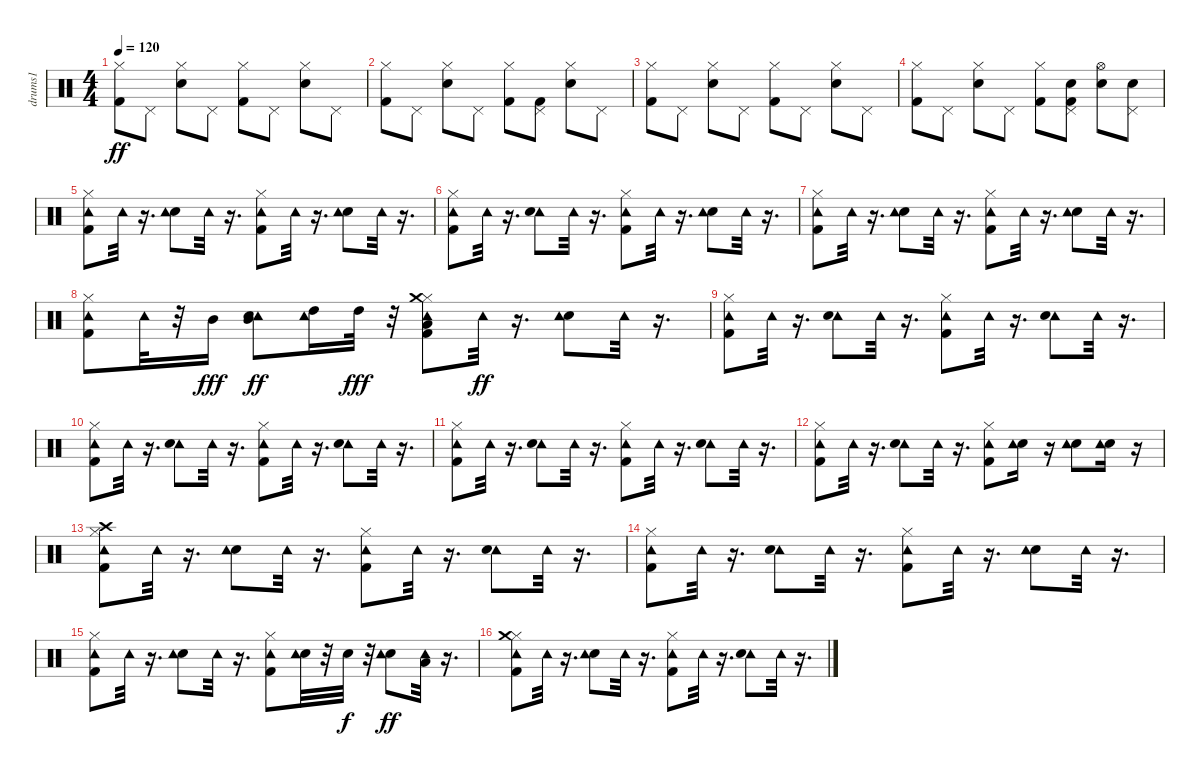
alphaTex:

\track ("drums1" "drums1") {instrument percussion}
\staff {score}
\articulation defaults
\ts (4 4)
\tempo 120
\clef neutral
\ks c
("Hi-Hat (closed)" "Kick (hit) 2").8{dy ff} "Pedal Hi-Hat (hit)".8 ("Snare (hit) 2" "Hi-Hat (closed)").8 "Pedal Hi-Hat (hit)".8 ("Hi-Hat (closed)" "Kick (hit) 2").8 "Pedal Hi-Hat (hit)".8 ("Snare (hit) 2" "Hi-Hat (closed)").8 "Pedal Hi-Hat (hit)".8 |
("Kick (hit) 2" "Hi-Hat (closed)").8 "Pedal Hi-Hat (hit)".8 ("Snare (hit) 2" "Hi-Hat (closed)").8 "Pedal Hi-Hat (hit)".8 ("Kick (hit) 2" "Hi-Hat (closed)").8 ("Pedal Hi-Hat (hit)" "Kick (hit) 2").8 ("Snare (hit) 2" "Hi-Hat (closed)").8 "Pedal Hi-Hat (hit)".8 |
("Hi-Hat (closed)" "Kick (hit) 2").8 "Pedal Hi-Hat (hit)".8 ("Hi-Hat (closed)" "Snare (hit) 2").8 "Pedal Hi-Hat (hit)".8 ("Kick (hit) 2" "Hi-Hat (closed)").8 "Pedal Hi-Hat (hit)".8 ("Snare (hit) 2" "Hi-Hat (closed)").8 "Pedal Hi-Hat (hit)".8 |
("Kick (hit) 2" "Hi-Hat (closed)").8 "Pedal Hi-Hat (hit)".8 ("Snare (hit) 2" "Hi-Hat (closed)").8 "Pedal Hi-Hat (hit)".8 ("Kick (hit) 2" "Hi-Hat (closed)").8 ("Snare (hit) 2" "Kick (hit) 2" "Pedal Hi-Hat (hit)").8 ("Snare (hit) 2" "Hi-Hat (open)").8 ("Snare (hit) 2" "Pedal Hi-Hat (hit)").8 |
("Kick (hit) 2" "Tambourine (hit)" "Hi-Hat (closed)").8 "Tambourine (hit)".32 r.16{d} ("Snare (hit) 2" "Tambourine (hit)").8 "Tambourine (hit)".32 r.16{d} ("Kick (hit) 2" "Tambourine (hit)" "Hi-Hat (closed)").8 "Tambourine (hit)".32 r.16{d} ("Snare (hit) 2" "Tambourine (hit)").8 "Tambourine (hit)".32 r.16{d} |
("Tambourine (hit)" "Hi-Hat (closed)" "Kick (hit) 2").8 "Tambourine (hit)".32 r.16{d} ("Tambourine (hit)" "Snare (hit) 2").8 "Tambourine (hit)".32 r.16{d} ("Kick (hit) 2" "Tambourine (hit)" "Hi-Hat (closed)").8 "Tambourine (hit)".32 r.16{d} ("Snare (hit) 2" "Tambourine (hit)").8 "Tambourine (hit)".32 r.16{d} |
("Kick (hit) 2" "Tambourine (hit)" "Hi-Hat (closed)").8 "Tambourine (hit)".32 r.16{d} ("Snare (hit) 2" "Tambourine (hit)").8 "Tambourine (hit)".32 r.16{d} ("Kick (hit) 2" "Tambourine (hit)" "Hi-Hat (closed)").8 "Tambourine (hit)".32 r.16{d} ("Snare (hit) 2" "Tambourine (hit)").8 "Tambourine (hit)".32 r.16{d} |
("Kick (hit) 2" "Tambourine (hit)" "Hi-Hat (closed)").8 "Tambourine (hit)".32 r.32 "Mid Tom (hit)".16{dy fff} ("Mid Tom (hit)" "Tambourine (hit)" "Snare (hit) 2").8{dy ff} ("High Tom (hit)" "Tambourine (hit)").16 "High Tom (hit)".32{dy fff} r.32 ("Low Floor Tom (hit)" "Kick (hit) 2" "Tambourine (hit)" "Hi-Hat (closed)" "Crash medium (hit)").8 "Tambourine (hit)".32{dy ff} r.16{d} ("Snare (hit) 2" "Tambourine (hit)").8 "Tambourine (hit)".32 r.16{d} |
("Tambourine (hit)" "Hi-Hat (closed)" "Kick (hit) 2").8 "Tambourine (hit)".32 r.16{d} ("Tambourine (hit)" "Snare (hit) 2").8 "Tambourine (hit)".32 r.16{d} ("Tambourine (hit)" "Hi-Hat (closed)" "Kick (hit) 2").8 "Tambourine (hit)".32 r.16{d} ("Tambourine (hit)" "Snare (hit) 2").8 "Tambourine (hit)".32 r.16{d} |
("Tambourine (hit)" "Hi-Hat (closed)" "Kick (hit) 2").8 "Tambourine (hit)".32 r.16{d} ("Tambourine (hit)" "Snare (hit) 2").8 "Tambourine (hit)".32 r.16{d} ("Tambourine (hit)" "Hi-Hat (closed)" "Kick (hit) 2").8 "Tambourine (hit)".32 r.16{d} ("Tambourine (hit)" "Snare (hit) 2").8 "Tambourine (hit)".32 r.16{d} |
("Tambourine (hit)" "Hi-Hat (closed)" "Kick (hit) 2").8 "Tambourine (hit)".32 r.16{d} ("Tambourine (hit)" "Snare (hit) 2").8 "Tambourine (hit)".32 r.16{d} ("Tambourine (hit)" "Hi-Hat (closed)" "Kick (hit) 2").8 "Tambourine (hit)".32 r.16{d} ("Tambourine (hit)" "Snare (hit) 2").8 "Tambourine (hit)".32 r.16{d} |
("Tambourine (hit)" "Hi-Hat (closed)" "Kick (hit) 2").8 "Tambourine (hit)".32 r.16{d} ("Tambourine (hit)" "Snare (hit) 2").8 "Tambourine (hit)".32 r.16{d} ("Kick (hit) 2" "Tambourine (hit)" "Hi-Hat (closed)").8 ("Snare (hit) 2" "Tambourine (hit)").16 r.16 ("Snare (hit) 2" "Tambourine (hit)").8 ("Snare (hit) 2" "Tambourine (hit)").16 r.16 |
("Kick (hit) 2" "Tambourine (hit)" "Hi-Hat (closed)" "Crash high (hit)").8 "Tambourine (hit)".32 r.16{d} ("Snare (hit) 2" "Tambourine (hit)").8 "Tambourine (hit)".32 r.16{d} ("Tambourine (hit)" "Hi-Hat (closed)" "Kick (hit) 2").8 "Tambourine (hit)".32 r.16{d} ("Tambourine (hit)" "Snare (hit) 2").8 "Tambourine (hit)".32 r.16{d} |
("Tambourine (hit)" "Hi-Hat (closed)" "Kick (hit) 2").8 "Tambourine (hit)".32 r.16{d} ("Tambourine (hit)" "Snare (hit) 2").8 "Tambourine (hit)".32 r.16{d} ("Tambourine (hit)" "Hi-Hat (closed)" "Kick (hit) 2").8 "Tambourine (hit)".32 r.16{d} ("Snare (hit) 2" "Tambourine (hit)").8 "Tambourine (hit)".32 r.16{d} |
("Kick (hit) 2" "Tambourine (hit)" "Hi-Hat (closed)").8 "Tambourine (hit)".32 r.16{d} ("Snare (hit) 2" "Tambourine (hit)").8 "Tambourine (hit)".32 r.16{d} ("Kick (hit) 2" "Tambourine (hit)" "Hi-Hat (closed)").8 ("Snare (hit) 2" "Tambourine (hit)").32 r.32 "Snare (hit) 2".32{dy f} r.32 ("Snare (hit) 2" "Tambourine (hit)").8{dy ff} ("Low Floor Tom (hit)" "Tambourine (hit)").32 r.16{d} |
("Kick (hit) 2" "Tambourine (hit)" "Hi-Hat (closed)" "Crash medium (hit)").8 "Tambourine (hit)".32 r.16{d} ("Snare (hit) 2" "Tambourine (hit)").8 "Tambourine (hit)".32 r.16{d} ("Tambourine (hit)" "Hi-Hat (closed)" "Kick (hit) 2").8 "Tambourine (hit)".32 r.16{d} ("Tambourine (hit)" "Snare (hit) 2").8 "Tambourine (hit)".32 r.16{d}
